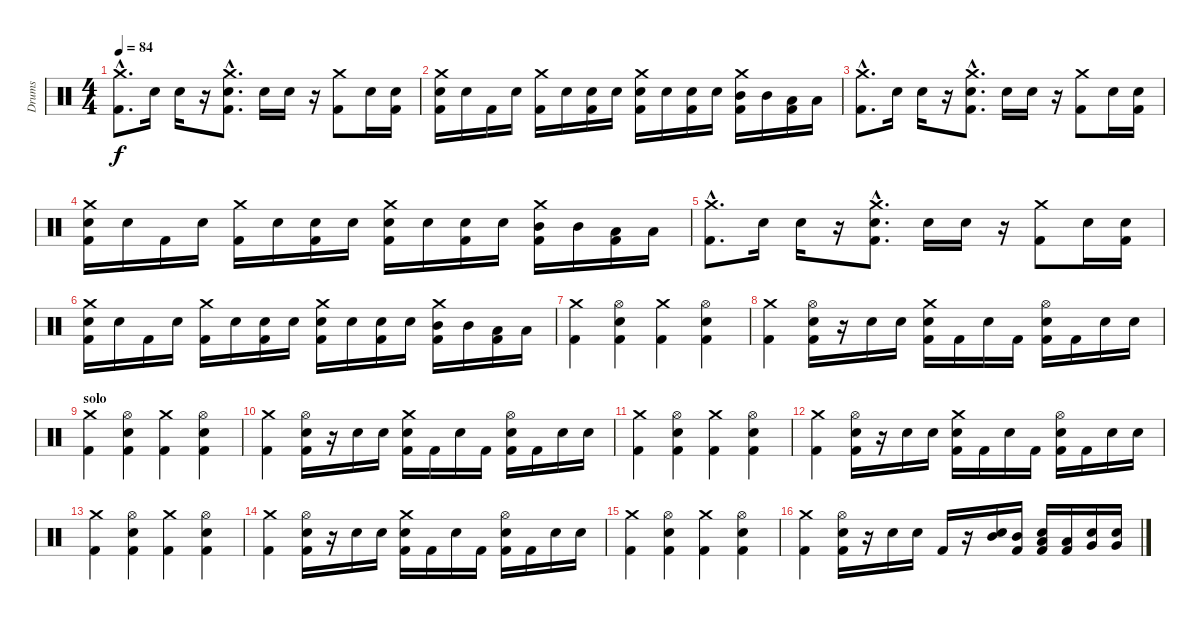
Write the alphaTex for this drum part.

\track ("Drums" "Drums") {instrument percussion}
\staff {score}
\articulation defaults
\ts (4 4)
\tempo 84
\clef neutral
\ks c
("Crash medium (hit)"{hac} "Kick (hit) 2"{hac}).8{d dy f} "Electric Snare (hit)".16 "Electric Snare (hit)".16 r.16 ("Crash medium (hit)"{hac} "Electric Snare (hit)"{hac} "Kick (hit) 2"{hac}).8{d} "Electric Snare (hit)".16 "Electric Snare (hit)".16 r.16 ("Crash medium (hit)" "Kick (hit) 2").8 "Electric Snare (hit)".16 ("Electric Snare (hit)" "Kick (hit) 2").16 |
("Crash medium (hit)" "Electric Snare (hit)" "Kick (hit) 2").16 "Electric Snare (hit)".16 "Kick (hit) 2".16 "Electric Snare (hit)".16 ("Crash medium (hit)" "Kick (hit) 2").16 "Electric Snare (hit)".16 ("Electric Snare (hit)" "Kick (hit) 2").16 "Electric Snare (hit)".16 ("Crash medium (hit)" "Electric Snare (hit)" "Kick (hit) 2").16 "Electric Snare (hit)".16 ("Electric Snare (hit)" "Kick (hit) 2").16 "Electric Snare (hit)".16 ("Crash medium (hit)" "Mid Tom (hit)" "Kick (hit) 2").16 "Mid Tom (hit)".16 ("Low Tom (hit)" "Kick (hit) 2").16 "Low Tom (hit)".16 |
("Crash medium (hit)"{hac} "Kick (hit) 2"{hac}).8{d} "Electric Snare (hit)".16 "Electric Snare (hit)".16 r.16 ("Crash medium (hit)"{hac} "Electric Snare (hit)"{hac} "Kick (hit) 2"{hac}).8{d} "Electric Snare (hit)".16 "Electric Snare (hit)".16 r.16 ("Crash medium (hit)" "Kick (hit) 2").8 "Electric Snare (hit)".16 ("Electric Snare (hit)" "Kick (hit) 2").16 |
("Crash medium (hit)" "Electric Snare (hit)" "Kick (hit) 2").16 "Electric Snare (hit)".16 "Kick (hit) 2".16 "Electric Snare (hit)".16 ("Crash medium (hit)" "Kick (hit) 2").16 "Electric Snare (hit)".16 ("Electric Snare (hit)" "Kick (hit) 2").16 "Electric Snare (hit)".16 ("Crash medium (hit)" "Electric Snare (hit)" "Kick (hit) 2").16 "Electric Snare (hit)".16 ("Electric Snare (hit)" "Kick (hit) 2").16 "Electric Snare (hit)".16 ("Crash medium (hit)" "Mid Tom (hit)" "Kick (hit) 2").16 "Mid Tom (hit)".16 ("Low Tom (hit)" "Kick (hit) 2").16 "Low Tom (hit)".16 |
("Crash medium (hit)"{hac} "Kick (hit) 2"{hac}).8{d} "Electric Snare (hit)".16 "Electric Snare (hit)".16 r.16 ("Crash medium (hit)"{hac} "Electric Snare (hit)"{hac} "Kick (hit) 2"{hac}).8{d} "Electric Snare (hit)".16 "Electric Snare (hit)".16 r.16 ("Crash medium (hit)" "Kick (hit) 2").8 "Electric Snare (hit)".16 ("Electric Snare (hit)" "Kick (hit) 2").16 |
("Crash medium (hit)" "Electric Snare (hit)" "Kick (hit) 2").16 "Electric Snare (hit)".16 "Kick (hit) 2".16 "Electric Snare (hit)".16 ("Crash medium (hit)" "Kick (hit) 2").16 "Electric Snare (hit)".16 ("Electric Snare (hit)" "Kick (hit) 2").16 "Electric Snare (hit)".16 ("Crash medium (hit)" "Electric Snare (hit)" "Kick (hit) 2").16 "Electric Snare (hit)".16 ("Electric Snare (hit)" "Kick (hit) 2").16 "Electric Snare (hit)".16 ("Crash medium (hit)" "Mid Tom (hit)" "Kick (hit) 2").16 "Mid Tom (hit)".16 ("Low Tom (hit)" "Kick (hit) 2").16 "Low Tom (hit)".16 |
("Crash medium (hit)" "Kick (hit) 2").4 ("Hi-Hat (open)" "Electric Snare (hit)" "Kick (hit) 2").4 ("Crash medium (hit)" "Kick (hit) 2").4 ("Hi-Hat (open)" "Electric Snare (hit)" "Kick (hit) 2").4 |
("Crash medium (hit)" "Kick (hit) 2").4 ("Hi-Hat (open)" "Electric Snare (hit)" "Kick (hit) 2").16 r.16 "Electric Snare (hit)".16 "Electric Snare (hit)".16 ("Crash medium (hit)" "Electric Snare (hit)" "Kick (hit) 2").16 "Kick (hit) 2".16 "Electric Snare (hit)".16 "Kick (hit) 2".16 ("Hi-Hat (open)" "Electric Snare (hit)" "Kick (hit) 2").16 "Kick (hit) 2".16 "Electric Snare (hit)".16 "Electric Snare (hit)".16 |
\section ("" "solo")
("Crash medium (hit)" "Kick (hit) 2").4 ("Hi-Hat (open)" "Electric Snare (hit)" "Kick (hit) 2").4 ("Crash medium (hit)" "Kick (hit) 2").4 ("Hi-Hat (open)" "Electric Snare (hit)" "Kick (hit) 2").4 |
("Crash medium (hit)" "Kick (hit) 2").4 ("Hi-Hat (open)" "Electric Snare (hit)" "Kick (hit) 2").16 r.16 "Electric Snare (hit)".16 "Electric Snare (hit)".16 ("Crash medium (hit)" "Electric Snare (hit)" "Kick (hit) 2").16 "Kick (hit) 2".16 "Electric Snare (hit)".16 "Kick (hit) 2".16 ("Hi-Hat (open)" "Electric Snare (hit)" "Kick (hit) 2").16 "Kick (hit) 2".16 "Electric Snare (hit)".16 "Electric Snare (hit)".16 |
("Crash medium (hit)" "Kick (hit) 2").4 ("Hi-Hat (open)" "Electric Snare (hit)" "Kick (hit) 2").4 ("Crash medium (hit)" "Kick (hit) 2").4 ("Hi-Hat (open)" "Electric Snare (hit)" "Kick (hit) 2").4 |
("Crash medium (hit)" "Kick (hit) 2").4 ("Hi-Hat (open)" "Electric Snare (hit)" "Kick (hit) 2").16 r.16 "Electric Snare (hit)".16 "Electric Snare (hit)".16 ("Crash medium (hit)" "Electric Snare (hit)" "Kick (hit) 2").16 "Kick (hit) 2".16 "Electric Snare (hit)".16 "Kick (hit) 2".16 ("Hi-Hat (open)" "Electric Snare (hit)" "Kick (hit) 2").16 "Kick (hit) 2".16 "Electric Snare (hit)".16 "Electric Snare (hit)".16 |
("Crash medium (hit)" "Kick (hit) 2").4 ("Hi-Hat (open)" "Electric Snare (hit)" "Kick (hit) 2").4 ("Crash medium (hit)" "Kick (hit) 2").4 ("Hi-Hat (open)" "Electric Snare (hit)" "Kick (hit) 2").4 |
("Crash medium (hit)" "Kick (hit) 2").4 ("Hi-Hat (open)" "Electric Snare (hit)" "Kick (hit) 2").16 r.16 "Electric Snare (hit)".16 "Electric Snare (hit)".16 ("Crash medium (hit)" "Electric Snare (hit)" "Kick (hit) 2").16 "Kick (hit) 2".16 "Electric Snare (hit)".16 "Kick (hit) 2".16 ("Hi-Hat (open)" "Electric Snare (hit)" "Kick (hit) 2").16 "Kick (hit) 2".16 "Electric Snare (hit)".16 "Electric Snare (hit)".16 |
("Crash medium (hit)" "Kick (hit) 2").4 ("Hi-Hat (open)" "Electric Snare (hit)" "Kick (hit) 2").4 ("Crash medium (hit)" "Kick (hit) 2").4 ("Hi-Hat (open)" "Electric Snare (hit)" "Kick (hit) 2").4 |
("Crash medium (hit)" "Kick (hit) 2").4 ("Hi-Hat (open)" "Electric Snare (hit)" "Kick (hit) 2").16 r.16 "Electric Snare (hit)".16 "Electric Snare (hit)".16 "Kick (hit) 2".16 r.16 ("Mid Tom (hit)" "Electric Snare (hit)").16 ("Mid Tom (hit)" "Kick (hit) 2").16 ("Low Tom (hit)" "Electric Snare (hit)" "Kick (hit) 2").16 ("Low Tom (hit)" "Kick (hit) 2").16 ("Very Low Tom (hit)" "Electric Snare (hit)").16 ("Very Low Tom (hit)" "Electric Snare (hit)").16
